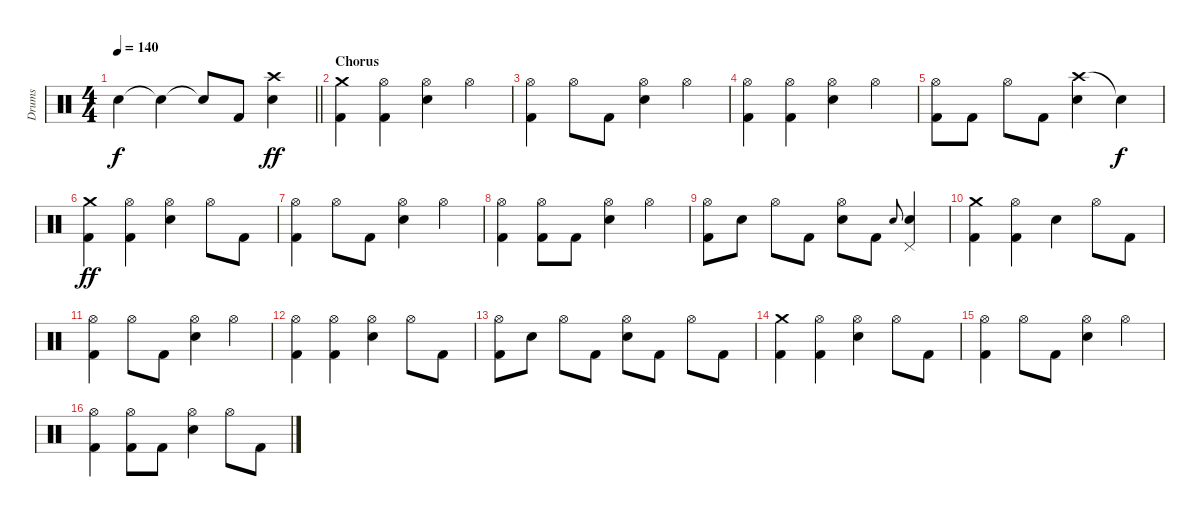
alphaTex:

\track ("Drums" "Drums") {instrument percussion}
\staff {score}
\articulation defaults
\ts (4 4)
\tempo 140
\clef neutral
\barLineRight lightlight
\ks c "Snare (hit)"{t}.4{dy f} "Snare (hit)"{t}.4 "Snare (hit)"{t}.8 "Kick (hit) 2".8
("Crash high (hit)" "Snare (hit) 2").4{dy ff} |
\section ("" "Chorus")
("Crash medium (hit)" "Kick (hit) 2").4 ("Hi-Hat (open)" "Kick (hit) 2").4 ("Hi-Hat (open)" "Snare (hit) 2").4 "Hi-Hat (open)".4 |
("Hi-Hat (open)" "Kick (hit) 2").4 "Hi-Hat (open)".8 "Kick (hit) 2".8 ("Hi-Hat (open)" "Snare (hit) 2").4 "Hi-Hat (open)".4 |
("Hi-Hat (open)" "Kick (hit) 2").4 ("Hi-Hat (open)" "Kick (hit) 2").4 ("Hi-Hat (open)" "Snare (hit) 2").4 "Hi-Hat (open)".4 |
("Hi-Hat (open)" "Kick (hit) 2").8 "Kick (hit) 2".8 "Hi-Hat (open)".8 "Kick (hit) 2".8 ("Crash high (hit)" "Snare (hit) 2").4 "Snare (hit)"{t}.4{dy f} |
("Crash medium (hit)" "Kick (hit) 2").4{dy ff} ("Hi-Hat (open)" "Kick (hit) 2").4 ("Hi-Hat (open)" "Snare (hit) 2").4 "Hi-Hat (open)".8 "Kick (hit) 2".8 |
("Hi-Hat (open)" "Kick (hit) 2").4 "Hi-Hat (open)".8 "Kick (hit) 2".8 ("Hi-Hat (open)" "Snare (hit) 2").4 "Hi-Hat (open)".4 |
("Hi-Hat (open)" "Kick (hit) 2").4 ("Hi-Hat (open)" "Kick (hit) 2").8 "Kick (hit) 2".8 ("Hi-Hat (open)" "Snare (hit) 2").4 "Hi-Hat (open)".4 |
("Hi-Hat (open)" "Kick (hit) 2").8 "Snare (hit) 2".8 "Hi-Hat (open)".8 "Kick (hit) 2".8 ("Hi-Hat (open)" "Snare (hit) 2").8 "Kick (hit) 2".8 "Snare (hit) 2".8{gr onbeat} ("Pedal Hi-Hat (hit)" "Snare (hit) 2").4 |
("Crash medium (hit)" "Kick (hit) 2").4 ("Hi-Hat (open)" "Kick (hit) 2").4 "Snare (hit) 2".4 "Hi-Hat (open)".8 "Kick (hit) 2".8 |
("Hi-Hat (open)" "Kick (hit) 2").4 "Hi-Hat (open)".8 "Kick (hit) 2".8 ("Hi-Hat (open)" "Snare (hit) 2").4 "Hi-Hat (open)".4 |
("Hi-Hat (open)" "Kick (hit) 2").4 ("Hi-Hat (open)" "Kick (hit) 2").4 ("Hi-Hat (open)" "Snare (hit) 2").4 "Hi-Hat (open)".8 "Kick (hit) 2".8 |
("Hi-Hat (open)" "Kick (hit) 2").8 "Snare (hit) 2".8 "Hi-Hat (open)".8 "Kick (hit) 2".8 ("Hi-Hat (open)" "Snare (hit) 2").8 "Kick (hit) 2".8 "Hi-Hat (open)".8 "Kick (hit) 2".8 |
("Crash medium (hit)" "Kick (hit) 2").4 ("Hi-Hat (open)" "Kick (hit) 2").4 ("Hi-Hat (open)" "Snare (hit) 2").4 "Hi-Hat (open)".8 "Kick (hit) 2".8 |
("Hi-Hat (open)" "Kick (hit) 2").4 "Hi-Hat (open)".8 "Kick (hit) 2".8 ("Hi-Hat (open)" "Snare (hit) 2").4 "Hi-Hat (open)".4 |
("Hi-Hat (open)" "Kick (hit) 2").4 ("Hi-Hat (open)" "Kick (hit) 2").8 "Kick (hit) 2".8 ("Hi-Hat (open)" "Snare (hit) 2").4 "Hi-Hat (open)".8 "Kick (hit) 2".8
